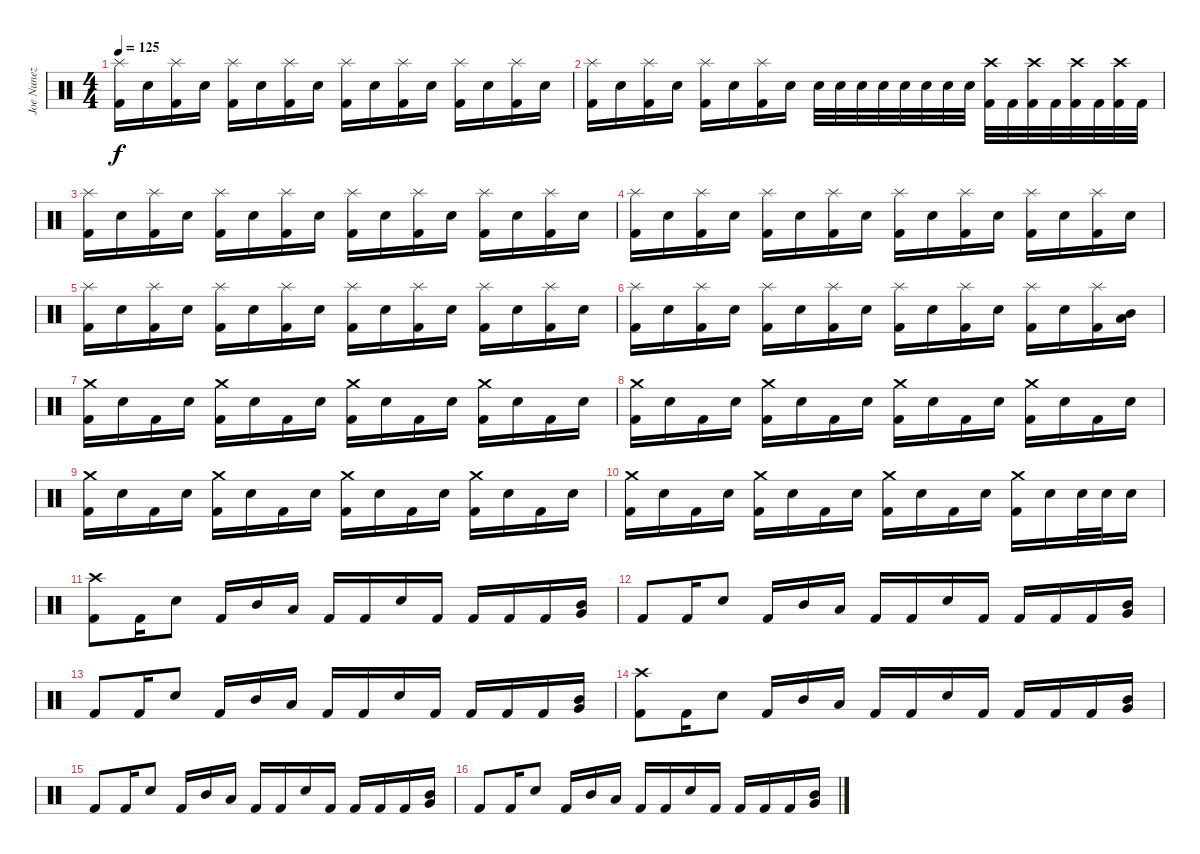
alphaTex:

\track ("Joe Nunez" "Joe Nunez") {instrument percussion}
\staff {score}
\articulation defaults
\ts (4 4)
\tempo 125
\clef neutral
\ks c
("Splash (hit)" "Kick (hit) 2").16{dy f} "Snare (hit) 2".16 ("Splash (hit)" "Kick (hit) 2").16 "Snare (hit) 2".16 ("Splash (hit)" "Kick (hit) 2").16 "Snare (hit) 2".16 ("Splash (hit)" "Kick (hit) 2").16 "Snare (hit) 2".16 ("Splash (hit)" "Kick (hit) 2").16 "Snare (hit) 2".16 ("Splash (hit)" "Kick (hit) 2").16 "Snare (hit) 2".16 ("Splash (hit)" "Kick (hit) 2").16 "Snare (hit) 2".16 ("Splash (hit)" "Kick (hit) 2").16 "Snare (hit) 2".16 |
("Splash (hit)" "Kick (hit) 2").16 "Snare (hit) 2".16 ("Splash (hit)" "Kick (hit) 2").16 "Snare (hit) 2".16 ("Splash (hit)" "Kick (hit) 2").16 "Snare (hit) 2".16 ("Splash (hit)" "Kick (hit) 2").16 "Snare (hit) 2".16 "Snare (hit) 2".32 "Snare (hit) 2".32 "Snare (hit) 2".32 "Snare (hit) 2".32 "Snare (hit) 2".32 "Snare (hit) 2".32 "Snare (hit) 2".32 "Snare (hit) 2".32 ("Crash high (hit)" "Kick (hit) 2").32 "Kick (hit) 2".32 ("Crash high (hit)" "Kick (hit) 2").32 "Kick (hit) 2".32 ("Crash high (hit)" "Kick (hit) 2").32 "Kick (hit) 2".32 ("Crash high (hit)" "Kick (hit) 2").32 "Kick (hit) 2".32 |
("Splash (hit)" "Kick (hit) 2").16 "Snare (hit) 2".16 ("Splash (hit)" "Kick (hit) 2").16 "Snare (hit) 2".16 ("Splash (hit)" "Kick (hit) 2").16 "Snare (hit) 2".16 ("Splash (hit)" "Kick (hit) 2").16 "Snare (hit) 2".16 ("Splash (hit)" "Kick (hit) 2").16 "Snare (hit) 2".16 ("Splash (hit)" "Kick (hit) 2").16 "Snare (hit) 2".16 ("Splash (hit)" "Kick (hit) 2").16 "Snare (hit) 2".16 ("Splash (hit)" "Kick (hit) 2").16 "Snare (hit) 2".16 |
("Splash (hit)" "Kick (hit) 2").16 "Snare (hit) 2".16 ("Splash (hit)" "Kick (hit) 2").16 "Snare (hit) 2".16 ("Splash (hit)" "Kick (hit) 2").16 "Snare (hit) 2".16 ("Splash (hit)" "Kick (hit) 2").16 "Snare (hit) 2".16 ("Splash (hit)" "Kick (hit) 2").16 "Snare (hit) 2".16 ("Splash (hit)" "Kick (hit) 2").16 "Snare (hit) 2".16 ("Splash (hit)" "Kick (hit) 2").16 "Snare (hit) 2".16 ("Splash (hit)" "Kick (hit) 2").16 "Snare (hit) 2".16 |
("Splash (hit)" "Kick (hit) 2").16 "Snare (hit) 2".16 ("Splash (hit)" "Kick (hit) 2").16 "Snare (hit) 2".16 ("Splash (hit)" "Kick (hit) 2").16 "Snare (hit) 2".16 ("Splash (hit)" "Kick (hit) 2").16 "Snare (hit) 2".16 ("Splash (hit)" "Kick (hit) 2").16 "Snare (hit) 2".16 ("Splash (hit)" "Kick (hit) 2").16 "Snare (hit) 2".16 ("Splash (hit)" "Kick (hit) 2").16 "Snare (hit) 2".16 ("Splash (hit)" "Kick (hit) 2").16 "Snare (hit) 2".16 |
("Splash (hit)" "Kick (hit) 2").16 "Snare (hit) 2".16 ("Splash (hit)" "Kick (hit) 2").16 "Snare (hit) 2".16 ("Splash (hit)" "Kick (hit) 2").16 "Snare (hit) 2".16 ("Splash (hit)" "Kick (hit) 2").16 "Snare (hit) 2".16 ("Splash (hit)" "Kick (hit) 2").16 "Snare (hit) 2".16 ("Splash (hit)" "Kick (hit) 2").16 "Snare (hit) 2".16 ("Splash (hit)" "Kick (hit) 2").16 "Snare (hit) 2".16 ("Splash (hit)" "Kick (hit) 2").16 ("Mid Tom (hit)" "Low Tom (hit)").16 |
("Crash medium (hit)" "Kick (hit) 2").16 "Snare (hit) 2".16 "Kick (hit) 2".16 "Snare (hit) 2".16 ("Crash medium (hit)" "Kick (hit) 2").16 "Snare (hit) 2".16 "Kick (hit) 2".16 "Snare (hit) 2".16 ("Crash medium (hit)" "Kick (hit) 2").16 "Snare (hit) 2".16 "Kick (hit) 2".16 "Snare (hit) 2".16 ("Crash medium (hit)" "Kick (hit) 2").16 "Snare (hit) 2".16 "Kick (hit) 2".16 "Snare (hit) 2".16 |
("Crash medium (hit)" "Kick (hit) 2").16 "Snare (hit) 2".16 "Kick (hit) 2".16 "Snare (hit) 2".16 ("Crash medium (hit)" "Kick (hit) 2").16 "Snare (hit) 2".16 "Kick (hit) 2".16 "Snare (hit) 2".16 ("Crash medium (hit)" "Kick (hit) 2").16 "Snare (hit) 2".16 "Kick (hit) 2".16 "Snare (hit) 2".16 ("Crash medium (hit)" "Kick (hit) 2").16 "Snare (hit) 2".16 "Kick (hit) 2".16 "Snare (hit) 2".16 |
("Crash medium (hit)" "Kick (hit) 2").16 "Snare (hit) 2".16 "Kick (hit) 2".16 "Snare (hit) 2".16 ("Crash medium (hit)" "Kick (hit) 2").16 "Snare (hit) 2".16 "Kick (hit) 2".16 "Snare (hit) 2".16 ("Crash medium (hit)" "Kick (hit) 2").16 "Snare (hit) 2".16 "Kick (hit) 2".16 "Snare (hit) 2".16 ("Crash medium (hit)" "Kick (hit) 2").16 "Snare (hit) 2".16 "Kick (hit) 2".16 "Snare (hit) 2".16 |
("Crash medium (hit)" "Kick (hit) 2").16 "Snare (hit) 2".16 "Kick (hit) 2".16 "Snare (hit) 2".16 ("Crash medium (hit)" "Kick (hit) 2").16 "Snare (hit) 2".16 "Kick (hit) 2".16 "Snare (hit) 2".16 ("Crash medium (hit)" "Kick (hit) 2").16 "Snare (hit) 2".16 "Kick (hit) 2".16 "Snare (hit) 2".16 ("Crash medium (hit)" "Kick (hit) 2").16 "Snare (hit) 2".16 "Snare (hit) 2".32 "Snare (hit) 2".32 "Snare (hit) 2".16 |
("Crash high (hit)" "Kick (hit) 2").8 "Kick (hit) 2".16 "Snare (hit) 2".8 "Kick (hit) 2".16 "Mid Tom (hit)".16 "Low Tom (hit)".16 "Kick (hit) 2".16 "Kick (hit) 2".16 "Snare (hit) 2".16 "Kick (hit) 2".16 "Kick (hit) 2".16 "Kick (hit) 2".16 "Kick (hit) 2".16 ("Mid Tom (hit)" "Very Low Tom (hit)").16 |
"Kick (hit) 2".8 "Kick (hit) 2".16 "Snare (hit) 2".8 "Kick (hit) 2".16 "Mid Tom (hit)".16 "Low Tom (hit)".16 "Kick (hit) 2".16 "Kick (hit) 2".16 "Snare (hit) 2".16 "Kick (hit) 2".16 "Kick (hit) 2".16 "Kick (hit) 2".16 "Kick (hit) 2".16 ("Mid Tom (hit)" "Very Low Tom (hit)").16 |
"Kick (hit) 2".8 "Kick (hit) 2".16 "Snare (hit) 2".8 "Kick (hit) 2".16 "Mid Tom (hit)".16 "Low Tom (hit)".16 "Kick (hit) 2".16 "Kick (hit) 2".16 "Snare (hit) 2".16 "Kick (hit) 2".16 "Kick (hit) 2".16 "Kick (hit) 2".16 "Kick (hit) 2".16 ("Mid Tom (hit)" "Very Low Tom (hit)").16 |
("Crash high (hit)" "Kick (hit) 2").8 "Kick (hit) 2".16 "Snare (hit) 2".8 "Kick (hit) 2".16 "Mid Tom (hit)".16 "Low Tom (hit)".16 "Kick (hit) 2".16 "Kick (hit) 2".16 "Snare (hit) 2".16 "Kick (hit) 2".16 "Kick (hit) 2".16 "Kick (hit) 2".16 "Kick (hit) 2".16 ("Mid Tom (hit)" "Very Low Tom (hit)").16 |
"Kick (hit) 2".8 "Kick (hit) 2".16 "Snare (hit) 2".8 "Kick (hit) 2".16 "Mid Tom (hit)".16 "Low Tom (hit)".16 "Kick (hit) 2".16 "Kick (hit) 2".16 "Snare (hit) 2".16 "Kick (hit) 2".16 "Kick (hit) 2".16 "Kick (hit) 2".16 "Kick (hit) 2".16 ("Mid Tom (hit)" "Very Low Tom (hit)").16 |
"Kick (hit) 2".8 "Kick (hit) 2".16 "Snare (hit) 2".8 "Kick (hit) 2".16 "Mid Tom (hit)".16 "Low Tom (hit)".16 "Kick (hit) 2".16 "Kick (hit) 2".16 "Snare (hit) 2".16 "Kick (hit) 2".16 "Kick (hit) 2".16 "Kick (hit) 2".16 "Kick (hit) 2".16 ("Mid Tom (hit)" "Very Low Tom (hit)").16
